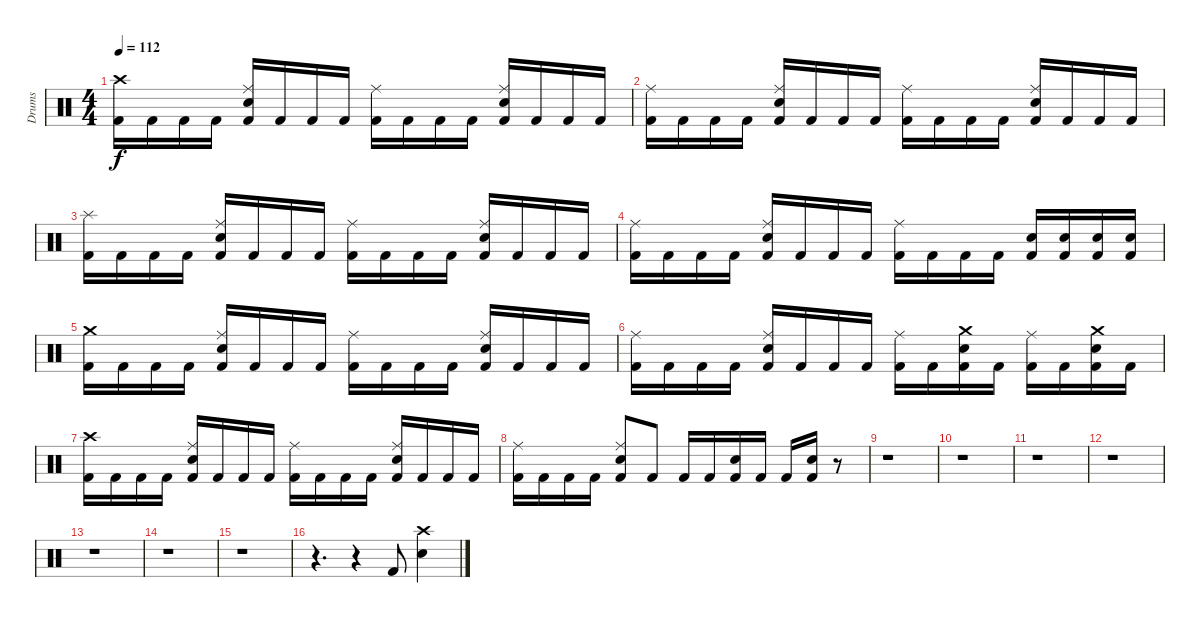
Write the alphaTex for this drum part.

\track ("Drums" "Drums") {instrument percussion}
\staff {score}
\articulation defaults
\ts (4 4)
\tempo 112
\clef neutral
\ks c
("Crash high (hit)" "Kick (hit) 2").16{dy f} "Kick (hit) 2".16 "Kick (hit) 2".16 "Kick (hit) 2".16 ("Ride (middle)" "Electric Snare (hit)" "Kick (hit) 2").16 "Kick (hit) 2".16 "Kick (hit) 2".16 "Kick (hit) 2".16 ("Ride (middle)" "Kick (hit) 2").16 "Kick (hit) 2".16 "Kick (hit) 2".16 "Kick (hit) 2".16 ("Ride (middle)" "Electric Snare (hit)" "Kick (hit) 2").16 "Kick (hit) 2".16 "Kick (hit) 2".16 "Kick (hit) 2".16 |
("Ride (middle)" "Kick (hit) 2").16 "Kick (hit) 2".16 "Kick (hit) 2".16 "Kick (hit) 2".16 ("Ride (middle)" "Electric Snare (hit)" "Kick (hit) 2").16 "Kick (hit) 2".16 "Kick (hit) 2".16 "Kick (hit) 2".16 ("Ride (middle)" "Kick (hit) 2").16 "Kick (hit) 2".16 "Kick (hit) 2".16 "Kick (hit) 2".16 ("Ride (middle)" "Electric Snare (hit)" "Kick (hit) 2").16 "Kick (hit) 2".16 "Kick (hit) 2".16 "Kick (hit) 2".16 |
("Splash (hit)" "Kick (hit) 2").16 "Kick (hit) 2".16 "Kick (hit) 2".16 "Kick (hit) 2".16 ("Ride (middle)" "Electric Snare (hit)" "Kick (hit) 2").16 "Kick (hit) 2".16 "Kick (hit) 2".16 "Kick (hit) 2".16 ("Ride (middle)" "Kick (hit) 2").16 "Kick (hit) 2".16 "Kick (hit) 2".16 "Kick (hit) 2".16 ("Ride (middle)" "Electric Snare (hit)" "Kick (hit) 2").16 "Kick (hit) 2".16 "Kick (hit) 2".16 "Kick (hit) 2".16 |
("Ride (middle)" "Kick (hit) 2").16 "Kick (hit) 2".16 "Kick (hit) 2".16 "Kick (hit) 2".16 ("Ride (middle)" "Electric Snare (hit)" "Kick (hit) 2").16 "Kick (hit) 2".16 "Kick (hit) 2".16 "Kick (hit) 2".16 ("Ride (middle)" "Kick (hit) 2").16 "Kick (hit) 2".16 "Kick (hit) 2".16 "Kick (hit) 2".16 ("Electric Snare (hit)" "Kick (hit) 2").16 ("Electric Snare (hit)" "Kick (hit) 2").16 ("Electric Snare (hit)" "Kick (hit) 2").16 ("Electric Snare (hit)" "Kick (hit) 2").16 |
("Crash medium (hit)" "Kick (hit) 2").16 "Kick (hit) 2".16 "Kick (hit) 2".16 "Kick (hit) 2".16 ("Ride (middle)" "Electric Snare (hit)" "Kick (hit) 2").16 "Kick (hit) 2".16 "Kick (hit) 2".16 "Kick (hit) 2".16 ("Ride (middle)" "Kick (hit) 2").16 "Kick (hit) 2".16 "Kick (hit) 2".16 "Kick (hit) 2".16 ("Ride (middle)" "Electric Snare (hit)" "Kick (hit) 2").16 "Kick (hit) 2".16 "Kick (hit) 2".16 "Kick (hit) 2".16 |
("Ride (middle)" "Kick (hit) 2").16 "Kick (hit) 2".16 "Kick (hit) 2".16 "Kick (hit) 2".16 ("Ride (middle)" "Electric Snare (hit)" "Kick (hit) 2").16 "Kick (hit) 2".16 "Kick (hit) 2".16 "Kick (hit) 2".16 ("Ride (middle)" "Kick (hit) 2").16 "Kick (hit) 2".16 ("Crash medium (hit)" "Electric Snare (hit)" "Kick (hit) 2").16 "Kick (hit) 2".16 ("Ride (middle)" "Kick (hit) 2").16 "Kick (hit) 2".16 ("Crash medium (hit)" "Electric Snare (hit)" "Kick (hit) 2").16 "Kick (hit) 2".16 |
("Crash high (hit)" "Kick (hit) 2").16 "Kick (hit) 2".16 "Kick (hit) 2".16 "Kick (hit) 2".16 ("Ride (middle)" "Electric Snare (hit)" "Kick (hit) 2").16 "Kick (hit) 2".16 "Kick (hit) 2".16 "Kick (hit) 2".16 ("Ride (middle)" "Kick (hit) 2").16 "Kick (hit) 2".16 "Kick (hit) 2".16 "Kick (hit) 2".16 ("Ride (middle)" "Electric Snare (hit)" "Kick (hit) 2").16 "Kick (hit) 2".16 "Kick (hit) 2".16 "Kick (hit) 2".16 |
("Ride (middle)" "Kick (hit) 2").16 "Kick (hit) 2".16 "Kick (hit) 2".16 "Kick (hit) 2".16 ("Ride (middle)" "Electric Snare (hit)" "Kick (hit) 2").8 "Kick (hit) 2".8 "Kick (hit) 2".16 "Kick (hit) 2".16 ("Electric Snare (hit)" "Kick (hit) 2").16 "Kick (hit) 2".16 "Kick (hit) 2".16 ("Electric Snare (hit)" "Kick (hit) 2").16 r.8 |
r.1 |
r.1 |
r.1 |
r.1 |
r.1 |
r.1 |
r.1 |
r.4{d} r.4 "Kick (hit) 2".8 ("Crash high (hit)" "Electric Snare (hit)").4
